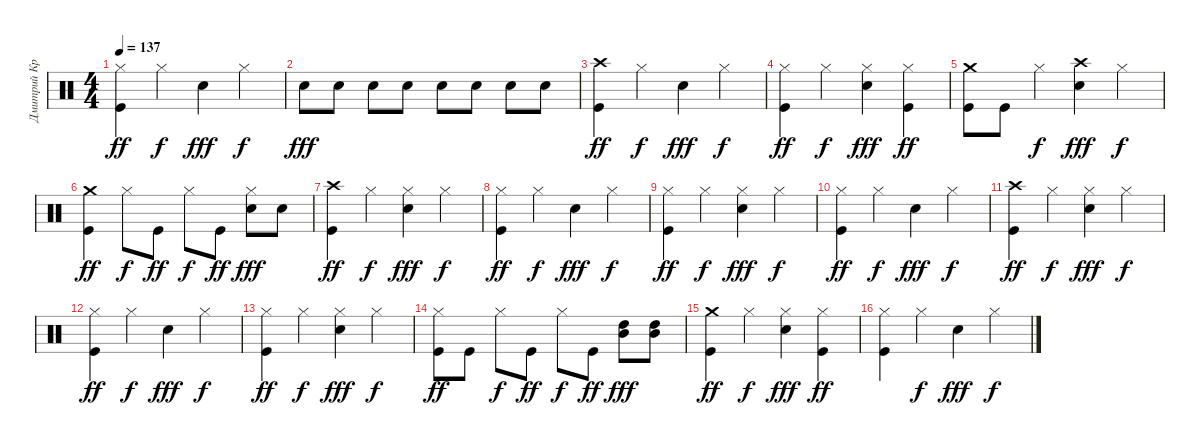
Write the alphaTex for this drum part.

\track ("Дмитрий Кревенков" "Дмитрий Кр") {instrument percussion}
\staff {score}
\articulation defaults
\ts (4 4)
\tempo 137
\clef neutral
\ks c
("Hi-Hat (closed)" "Kick (hit)").4{dy ff} "Hi-Hat (closed)".4{dy f} "Electric Snare (hit)".4{dy fff} "Hi-Hat (closed)".4{dy f} |
"Electric Snare (hit)".8{dy fff} "Electric Snare (hit)".8 "Electric Snare (hit)".8 "Electric Snare (hit)".8 "Electric Snare (hit)".8 "Electric Snare (hit)".8 "Electric Snare (hit)".8 "Electric Snare (hit)".8 |
("Crash high (hit)" "Kick (hit)").4{dy ff} "Hi-Hat (closed)".4{dy f} "Electric Snare (hit)".4{dy fff} "Hi-Hat (closed)".4{dy f} |
("Kick (hit)" "Hi-Hat (closed)").4{dy ff} "Hi-Hat (closed)".4{dy f} ("Electric Snare (hit)" "Hi-Hat (closed)").4{dy fff} ("Kick (hit)" "Hi-Hat (closed)").4{dy ff} |
("Crash medium (hit)" "Kick (hit)").8 "Kick (hit)".8 "Hi-Hat (closed)".4{dy f} ("Crash high (hit)" "Electric Snare (hit)").4{dy fff} "Hi-Hat (closed)".4{dy f} |
("Kick (hit)" "Crash medium (hit)").4{dy ff} "Hi-Hat (closed)".8{dy f} "Kick (hit)".8{dy ff} "Hi-Hat (closed)".8{dy f} "Kick (hit)".8{dy ff} ("Electric Snare (hit)" "Hi-Hat (closed)").8{dy fff} "Electric Snare (hit)".8 |
("Crash high (hit)" "Kick (hit)").4{dy ff} "Hi-Hat (closed)".4{dy f} ("Snare (hit) 2" "Hi-Hat (closed)").4{dy fff} "Hi-Hat (closed)".4{dy f} |
("Kick (hit)" "Hi-Hat (closed)").4{dy ff} "Hi-Hat (closed)".4{dy f} "Snare (hit) 2".4{dy fff} "Hi-Hat (closed)".4{dy f} |
("Kick (hit)" "Hi-Hat (closed)").4{dy ff} "Hi-Hat (closed)".4{dy f} ("Snare (hit) 2" "Hi-Hat (closed)").4{dy fff} "Hi-Hat (closed)".4{dy f} |
("Kick (hit)" "Hi-Hat (closed)").4{dy ff} "Hi-Hat (closed)".4{dy f} "Snare (hit) 2".4{dy fff} "Hi-Hat (closed)".4{dy f} |
("Kick (hit)" "Crash high (hit)").4{dy ff} "Hi-Hat (closed)".4{dy f} ("Snare (hit) 2" "Hi-Hat (closed)").4{dy fff} "Hi-Hat (closed)".4{dy f} |
("Kick (hit)" "Hi-Hat (closed)").4{dy ff} "Hi-Hat (closed)".4{dy f} "Snare (hit) 2".4{dy fff} "Hi-Hat (closed)".4{dy f} |
("Kick (hit)" "Hi-Hat (closed)").4{dy ff} "Hi-Hat (closed)".4{dy f} ("Snare (hit) 2" "Hi-Hat (closed)").4{dy fff} "Hi-Hat (closed)".4{dy f} |
("Kick (hit)" "Hi-Hat (closed)").8{dy ff} "Kick (hit)".8 "Hi-Hat (closed)".8{dy f} "Kick (hit)".8{dy ff} "Hi-Hat (closed)".8{dy f} "Kick (hit)".8{dy ff} ("Mid Tom (hit)" "High Tom (hit)").8{dy fff} ("High Tom (hit)" "Mid Tom (hit)").8 |
("Kick (hit)" "Crash medium (hit)").4{dy ff} "Hi-Hat (closed)".4{dy f} ("Snare (hit) 2" "Hi-Hat (closed)").4{dy fff} ("Kick (hit)" "Hi-Hat (closed)").4{dy ff} |
("Kick (hit)" "Hi-Hat (closed)").4 "Hi-Hat (closed)".4{dy f} "Snare (hit) 2".4{dy fff} "Hi-Hat (closed)".4{dy f}
